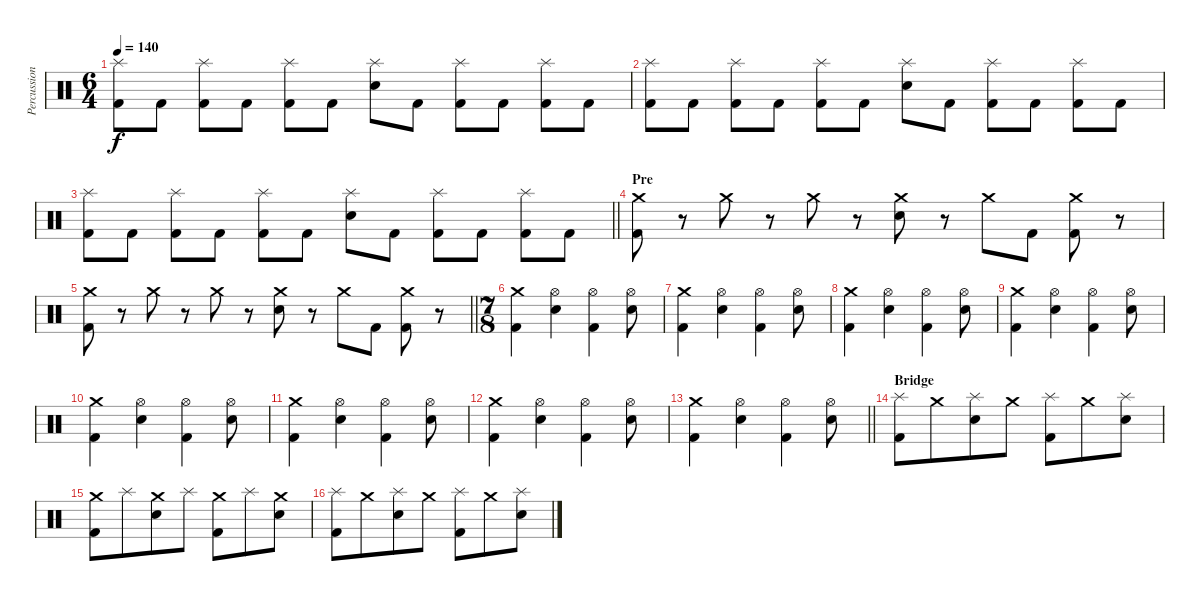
\track ("Percussion" "Percussion") {instrument percussion}
\staff {score}
\articulation defaults
\ts (6 4)
\tempo 140
\clef neutral
\ks c
("Splash (hit)" "Kick (hit) 2").8{dy f} "Kick (hit) 2".8 ("Splash (hit)" "Kick (hit) 2").8 "Kick (hit) 2".8 ("Splash (hit)" "Kick (hit) 2").8 "Kick (hit) 2".8 ("Splash (hit)" "Electric Snare (hit)").8 "Kick (hit) 2".8 ("Splash (hit)" "Kick (hit) 2").8 "Kick (hit) 2".8 ("Splash (hit)" "Kick (hit) 2").8 "Kick (hit) 2".8 |
("Splash (hit)" "Kick (hit) 2").8 "Kick (hit) 2".8 ("Splash (hit)" "Kick (hit) 2").8 "Kick (hit) 2".8 ("Splash (hit)" "Kick (hit) 2").8 "Kick (hit) 2".8 ("Splash (hit)" "Electric Snare (hit)").8 "Kick (hit) 2".8 ("Splash (hit)" "Kick (hit) 2").8 "Kick (hit) 2".8 ("Splash (hit)" "Kick (hit) 2").8 "Kick (hit) 2".8 |
\barLineRight lightlight
("Splash (hit)" "Kick (hit) 2").8 "Kick (hit) 2".8 ("Splash (hit)" "Kick (hit) 2").8 "Kick (hit) 2".8 ("Splash (hit)" "Kick (hit) 2").8 "Kick (hit) 2".8 ("Splash (hit)" "Electric Snare (hit)").8 "Kick (hit) 2".8 ("Splash (hit)" "Kick (hit) 2").8 "Kick (hit) 2".8 ("Splash (hit)" "Kick (hit) 2").8 "Kick (hit) 2".8 |
\section ("" "Pre")
("Crash medium (hit)" "Kick (hit) 2").8 r.8 "Crash medium (hit)".8 r.8 "Crash medium (hit)".8 r.8 ("Crash medium (hit)" "Electric Snare (hit)").8 r.8 "Crash medium (hit)".8 "Kick (hit) 2".8 ("Crash medium (hit)" "Kick (hit) 2").8 r.8 |
\barLineRight lightlight
("Crash medium (hit)" "Kick (hit) 2").8 r.8 "Crash medium (hit)".8 r.8 "Crash medium (hit)".8 r.8 ("Crash medium (hit)" "Electric Snare (hit)").8 r.8 "Crash medium (hit)".8 "Kick (hit) 2".8 ("Crash medium (hit)" "Kick (hit) 2").8 r.8 |
\ts (7 8)
\section ("" "")
("Crash medium (hit)" "Kick (hit) 2").4 ("Hi-Hat (open)" "Electric Snare (hit)").4 ("Hi-Hat (open)" "Kick (hit) 2").4 ("Hi-Hat (open)" "Electric Snare (hit)").8 |
("Crash medium (hit)" "Kick (hit) 2").4 ("Hi-Hat (open)" "Electric Snare (hit)").4 ("Hi-Hat (open)" "Kick (hit) 2").4 ("Hi-Hat (open)" "Electric Snare (hit)").8 |
("Crash medium (hit)" "Kick (hit) 2").4 ("Hi-Hat (open)" "Electric Snare (hit)").4 ("Hi-Hat (open)" "Kick (hit) 2").4 ("Hi-Hat (open)" "Electric Snare (hit)").8 |
("Crash medium (hit)" "Kick (hit) 2").4 ("Hi-Hat (open)" "Electric Snare (hit)").4 ("Hi-Hat (open)" "Kick (hit) 2").4 ("Hi-Hat (open)" "Electric Snare (hit)").8 |
("Crash medium (hit)" "Kick (hit) 2").4 ("Hi-Hat (open)" "Electric Snare (hit)").4 ("Hi-Hat (open)" "Kick (hit) 2").4 ("Hi-Hat (open)" "Electric Snare (hit)").8 |
("Crash medium (hit)" "Kick (hit) 2").4 ("Hi-Hat (open)" "Electric Snare (hit)").4 ("Hi-Hat (open)" "Kick (hit) 2").4 ("Hi-Hat (open)" "Electric Snare (hit)").8 |
("Crash medium (hit)" "Kick (hit) 2").4 ("Hi-Hat (open)" "Electric Snare (hit)").4 ("Hi-Hat (open)" "Kick (hit) 2").4 ("Hi-Hat (open)" "Electric Snare (hit)").8 |
\barLineRight lightlight
("Crash medium (hit)" "Kick (hit) 2").4 ("Hi-Hat (open)" "Electric Snare (hit)").4 ("Hi-Hat (open)" "Kick (hit) 2").4 ("Hi-Hat (open)" "Electric Snare (hit)").8 |
\section ("" "Bridge")
("Splash (hit)" "Kick (hit) 2").8 "Crash medium (hit)".8 ("Splash (hit)" "Electric Snare (hit)").8 "Crash medium (hit)".8 ("Splash (hit)" "Kick (hit) 2").8 "Crash medium (hit)".8 ("Splash (hit)" "Electric Snare (hit)").8 |
("Crash medium (hit)" "Kick (hit) 2").8 "Splash (hit)".8 ("Crash medium (hit)" "Electric Snare (hit)").8 "Splash (hit)".8 ("Crash medium (hit)" "Kick (hit) 2").8 "Splash (hit)".8 ("Crash medium (hit)" "Electric Snare (hit)").8 |
("Splash (hit)" "Kick (hit) 2").8 "Crash medium (hit)".8 ("Splash (hit)" "Electric Snare (hit)").8 "Crash medium (hit)".8 ("Splash (hit)" "Kick (hit) 2").8 "Crash medium (hit)".8 ("Splash (hit)" "Electric Snare (hit)").8
